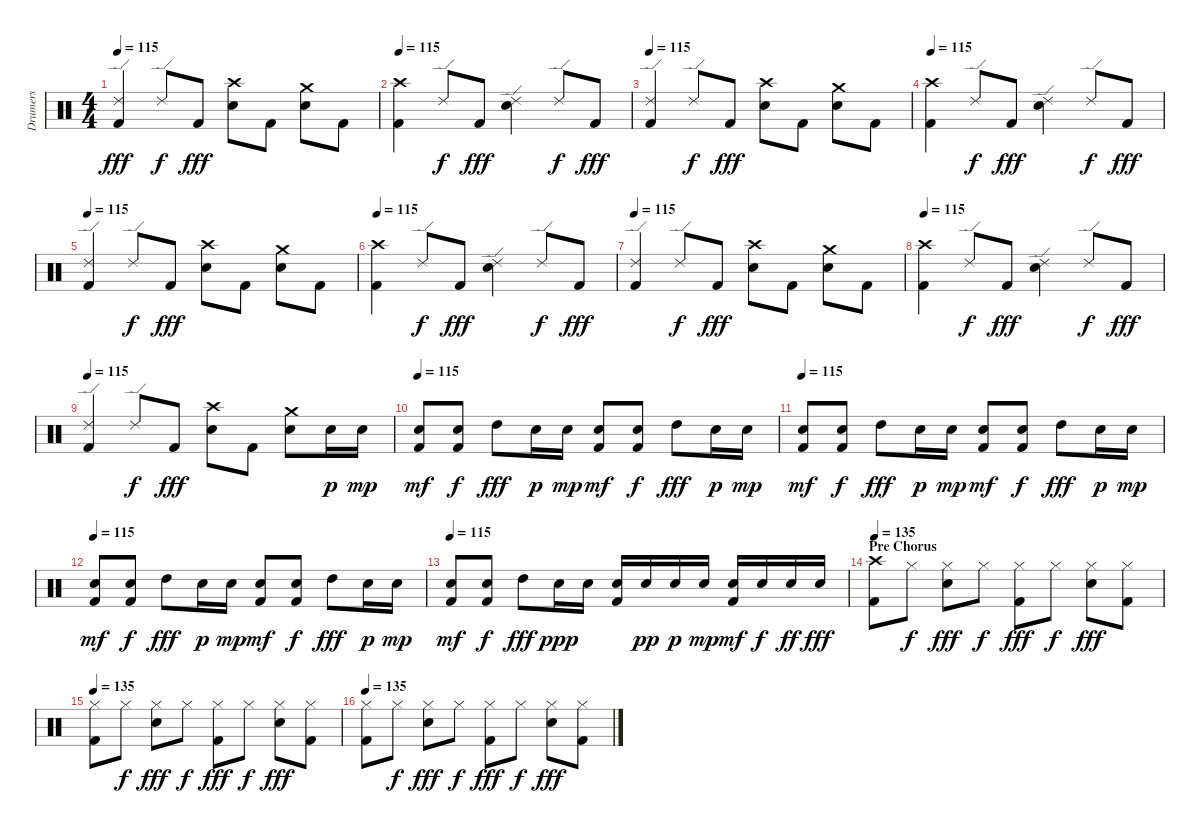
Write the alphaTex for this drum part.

\track ("Drumers" "Drumers") {instrument percussion}
\staff {score}
\articulation defaults
\ts (4 4)
\tempo 115
\clef neutral
\ks c
("Ride (edge) 2" "Kick (hit) 2").4{dy fff} "Ride (edge) 2".8{dy f} "Kick (hit) 2".8{dy fff} ("Crash high (hit)" "Electric Snare (hit)").8 "Kick (hit) 2".8 ("Crash medium (hit)" "Electric Snare (hit)").8 "Kick (hit) 2".8 |
\tempo 115
("Crash high (hit)" "Kick (hit) 2").4 "Ride (edge) 2".8{dy f} "Kick (hit) 2".8{dy fff} ("Ride (edge) 2" "Electric Snare (hit)").4 "Ride (edge) 2".8{dy f} "Kick (hit) 2".8{dy fff} |
\tempo 115
("Ride (edge) 2" "Kick (hit) 2").4 "Ride (edge) 2".8{dy f} "Kick (hit) 2".8{dy fff} ("Crash high (hit)" "Electric Snare (hit)").8 "Kick (hit) 2".8 ("Crash medium (hit)" "Electric Snare (hit)").8 "Kick (hit) 2".8 |
\tempo 115
("Crash high (hit)" "Kick (hit) 2").4 "Ride (edge) 2".8{dy f} "Kick (hit) 2".8{dy fff} ("Ride (edge) 2" "Electric Snare (hit)").4 "Ride (edge) 2".8{dy f} "Kick (hit) 2".8{dy fff} |
\tempo 115
("Ride (edge) 2" "Kick (hit) 2").4 "Ride (edge) 2".8{dy f} "Kick (hit) 2".8{dy fff} ("Crash high (hit)" "Electric Snare (hit)").8 "Kick (hit) 2".8 ("Crash medium (hit)" "Electric Snare (hit)").8 "Kick (hit) 2".8 |
\tempo 115
("Crash high (hit)" "Kick (hit) 2").4 "Ride (edge) 2".8{dy f} "Kick (hit) 2".8{dy fff} ("Ride (edge) 2" "Electric Snare (hit)").4 "Ride (edge) 2".8{dy f} "Kick (hit) 2".8{dy fff} |
\tempo 115
("Ride (edge) 2" "Kick (hit) 2").4 "Ride (edge) 2".8{dy f} "Kick (hit) 2".8{dy fff} ("Crash high (hit)" "Electric Snare (hit)").8 "Kick (hit) 2".8 ("Crash medium (hit)" "Electric Snare (hit)").8 "Kick (hit) 2".8 |
\tempo 115
("Crash high (hit)" "Kick (hit) 2").4 "Ride (edge) 2".8{dy f} "Kick (hit) 2".8{dy fff} ("Ride (edge) 2" "Electric Snare (hit)").4 "Ride (edge) 2".8{dy f} "Kick (hit) 2".8{dy fff} |
\tempo 115
("Ride (edge) 2" "Kick (hit) 2").4 "Ride (edge) 2".8{dy f} "Kick (hit) 2".8{dy fff} ("Crash high (hit)" "Electric Snare (hit)").8 "Kick (hit) 2".8 ("Crash medium (hit)" "Electric Snare (hit)").8 "Electric Snare (hit)".16{dy p} "Electric Snare (hit)".16{dy mp} |
\tempo 115
("Electric Snare (hit)" "Kick (hit) 2").8{dy mf} ("Electric Snare (hit)" "Kick (hit) 2").8{dy f} "High Tom (hit)".8{dy fff} "Electric Snare (hit)".16{dy p} "Electric Snare (hit)".16{dy mp} ("Electric Snare (hit)" "Kick (hit) 2").8{dy mf} ("Electric Snare (hit)" "Kick (hit) 2").8{dy f} "High Tom (hit)".8{dy fff} "Electric Snare (hit)".16{dy p} "Electric Snare (hit)".16{dy mp} |
\tempo 115
("Electric Snare (hit)" "Kick (hit) 2").8{dy mf} ("Electric Snare (hit)" "Kick (hit) 2").8{dy f} "High Tom (hit)".8{dy fff} "Electric Snare (hit)".16{dy p} "Electric Snare (hit)".16{dy mp} ("Electric Snare (hit)" "Kick (hit) 2").8{dy mf} ("Electric Snare (hit)" "Kick (hit) 2").8{dy f} "High Tom (hit)".8{dy fff} "Electric Snare (hit)".16{dy p} "Electric Snare (hit)".16{dy mp} |
\tempo 115
("Electric Snare (hit)" "Kick (hit) 2").8{dy mf} ("Electric Snare (hit)" "Kick (hit) 2").8{dy f} "High Tom (hit)".8{dy fff} "Electric Snare (hit)".16{dy p} "Electric Snare (hit)".16{dy mp} ("Electric Snare (hit)" "Kick (hit) 2").8{dy mf} ("Electric Snare (hit)" "Kick (hit) 2").8{dy f} "High Tom (hit)".8{dy fff} "Electric Snare (hit)".16{dy p} "Electric Snare (hit)".16{dy mp} |
\tempo 115
("Electric Snare (hit)" "Kick (hit) 2").8{dy mf} ("Electric Snare (hit)" "Kick (hit) 2").8{dy f} "High Tom (hit)".8{dy fff} "Electric Snare (hit)".16{dy ppp} "Electric Snare (hit)".16 ("Electric Snare (hit)" "Kick (hit) 2").16 "Electric Snare (hit)".16{dy pp} "Electric Snare (hit)".16{dy p} "Electric Snare (hit)".16{dy mp} ("Electric Snare (hit)" "Kick (hit) 2").16{dy mf} "Electric Snare (hit)".16{dy f} "Electric Snare (hit)".16{dy ff} "Electric Snare (hit)".16{dy fff} |
\section ("" "Pre Chorus")
\tempo 135
("Crash high (hit)" "Kick (hit) 2").8 "Hi-Hat (closed)".8{dy f} ("Hi-Hat (closed)" "Electric Snare (hit)").8{dy fff} "Hi-Hat (closed)".8{dy f} ("Hi-Hat (closed)" "Kick (hit) 2").8{dy fff} "Hi-Hat (closed)".8{dy f} ("Hi-Hat (closed)" "Electric Snare (hit)").8{dy fff} ("Hi-Hat (closed)" "Kick (hit) 2").8 |
\tempo 135
("Hi-Hat (closed)" "Kick (hit) 2").8 "Hi-Hat (closed)".8{dy f} ("Hi-Hat (closed)" "Electric Snare (hit)").8{dy fff} "Hi-Hat (closed)".8{dy f} ("Hi-Hat (closed)" "Kick (hit) 2").8{dy fff} "Hi-Hat (closed)".8{dy f} ("Hi-Hat (closed)" "Electric Snare (hit)").8{dy fff} ("Hi-Hat (closed)" "Kick (hit) 2").8 |
\tempo 135
("Hi-Hat (closed)" "Kick (hit) 2").8 "Hi-Hat (closed)".8{dy f} ("Hi-Hat (closed)" "Electric Snare (hit)").8{dy fff} "Hi-Hat (closed)".8{dy f} ("Hi-Hat (closed)" "Kick (hit) 2").8{dy fff} "Hi-Hat (closed)".8{dy f} ("Hi-Hat (closed)" "Electric Snare (hit)").8{dy fff} ("Hi-Hat (closed)" "Kick (hit) 2").8
